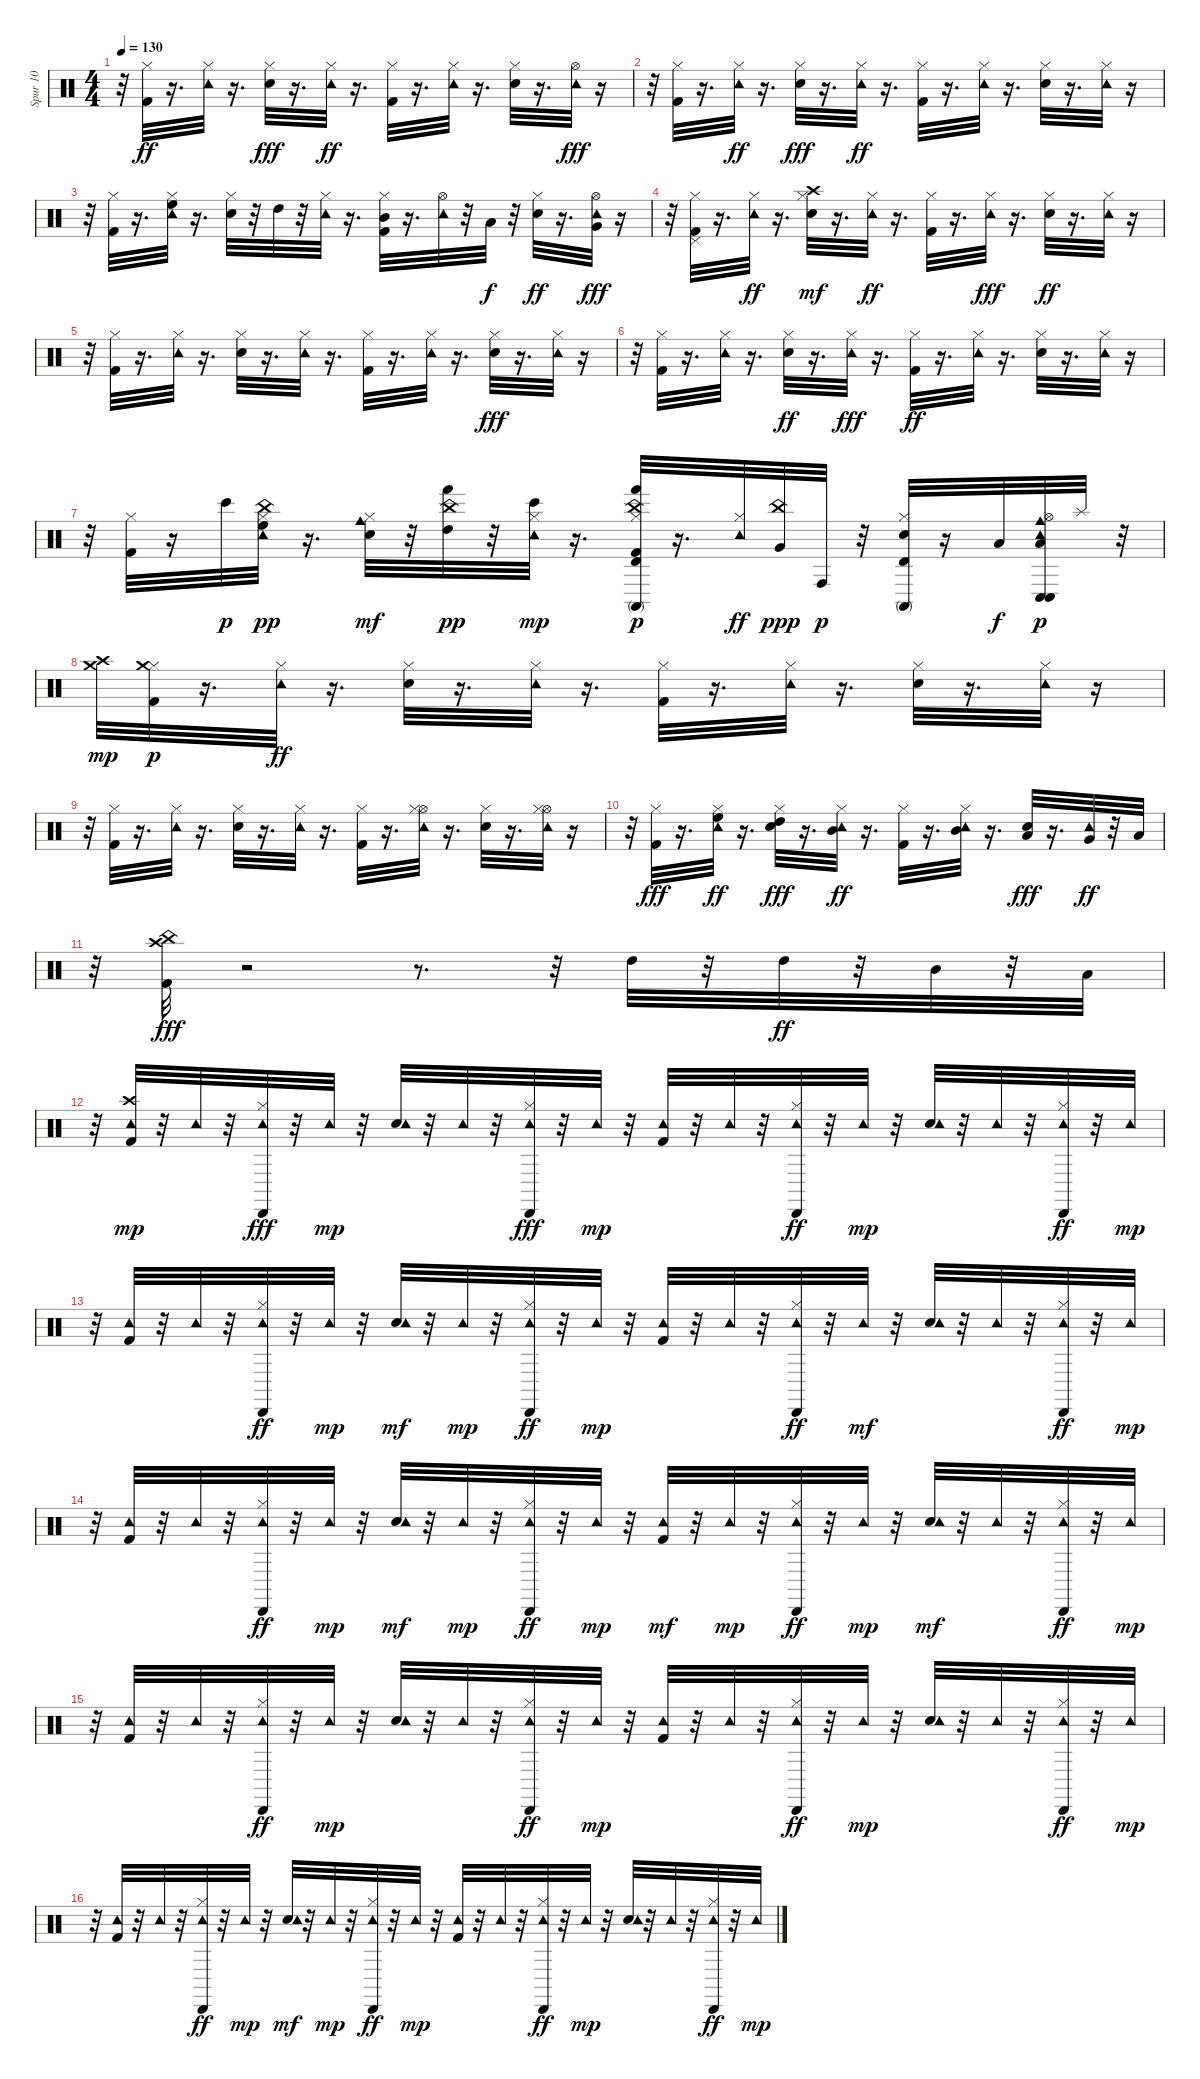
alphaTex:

\track ("Spur 10" "Spur 10") {instrument percussion}
\staff {score}
\articulation defaults
\ts (4 4)
\tempo 130
\clef neutral
\ks c
r.32{dy ff} ("Kick (hit) 2" "Hi-Hat (closed)").32 r.16{d} ("Tambourine (hit)" "Hi-Hat (closed)").32 r.16{d} ("Electric Snare (hit)" "Hi-Hat (closed)").32{dy fff} r.16{d} ("Tambourine (hit)" "Hi-Hat (closed)").32{dy ff} r.16{d} ("Kick (hit) 2" "Hi-Hat (closed)").32 r.16{d} ("Tambourine (hit)" "Hi-Hat (closed)").32 r.16{d} ("Electric Snare (hit)" "Hi-Hat (closed)").32 r.16{d} ("Tambourine (hit)" "Hi-Hat (open)").32{dy fff} r.16 |
r.32 ("Kick (hit) 2" "Hi-Hat (closed)").32 r.16{d} ("Tambourine (hit)" "Hi-Hat (closed)").32{dy ff} r.16{d} ("Electric Snare (hit)" "Hi-Hat (closed)").32{dy fff} r.16{d} ("Tambourine (hit)" "Hi-Hat (closed)").32{dy ff} r.16{d} ("Kick (hit) 2" "Hi-Hat (closed)").32 r.16{d} ("Tambourine (hit)" "Hi-Hat (closed)").32 r.16{d} ("Electric Snare (hit)" "Hi-Hat (closed)").32 r.16{d} ("Tambourine (hit)" "Hi-Hat (closed)").32 r.16 |
r.32 ("Kick (hit) 2" "Hi-Hat (closed)").32 r.16{d} ("Tambourine (hit)" "Hi-Hat (closed)" "High Floor Tom (hit)").32 r.16{d} ("Electric Snare (hit)" "Hi-Hat (closed)").32 r.32 "High Tom (hit)".32 r.32 ("Tambourine (hit)" "Hi-Hat (closed)").32 r.16{d} ("Kick (hit) 2" "Hi-Hat (closed)" "Mid Tom (hit)").32 r.16{d} ("Tambourine (hit)" "Hi-Hat (open)").32 r.32 "Low Tom (hit)".32{dy f} r.32 ("Electric Snare (hit)" "Hi-Hat (closed)").32{dy ff} r.16{d} ("Tambourine (hit)" "Hi-Hat (open)" "Very Low Tom (hit)").32{dy fff} r.16 |
r.32 ("Kick (hit) 2" "Hi-Hat (closed)" "Pedal Hi-Hat (hit)").32 r.16{d} ("Tambourine (hit)" "Hi-Hat (closed)").32{dy ff} r.16{d} ("Electric Snare (hit)" "Hi-Hat (closed)" "Crash high (hit)").32{dy mf} r.16{d} ("Tambourine (hit)" "Hi-Hat (closed)").32{dy ff} r.16{d} ("Kick (hit) 2" "Hi-Hat (closed)").32 r.16{d} ("Tambourine (hit)" "Hi-Hat (closed)").32{dy fff} r.16{d} ("Electric Snare (hit)" "Hi-Hat (closed)").32{dy ff} r.16{d} ("Tambourine (hit)" "Hi-Hat (closed)").32 r.16 |
r.32 ("Kick (hit) 2" "Hi-Hat (closed)").32 r.16{d} ("Tambourine (hit)" "Hi-Hat (closed)").32 r.16{d} ("Electric Snare (hit)" "Hi-Hat (closed)").32 r.16{d} ("Tambourine (hit)" "Hi-Hat (closed)").32 r.16{d} ("Kick (hit) 2" "Hi-Hat (closed)").32 r.16{d} ("Tambourine (hit)" "Hi-Hat (closed)").32 r.16{d} ("Electric Snare (hit)" "Hi-Hat (closed)").32{dy fff} r.16{d} ("Tambourine (hit)" "Hi-Hat (closed)").32 r.16 |
r.32 ("Kick (hit) 2" "Hi-Hat (closed)").32 r.16{d} ("Tambourine (hit)" "Hi-Hat (closed)").32 r.16{d} ("Electric Snare (hit)" "Hi-Hat (closed)").32{dy ff} r.16{d} ("Tambourine (hit)" "Hi-Hat (closed)").32{dy fff} r.16{d} ("Kick (hit) 2" "Hi-Hat (closed)").32{dy ff} r.16{d} ("Tambourine (hit)" "Hi-Hat (closed)").32 r.16{d} ("Electric Snare (hit)" "Hi-Hat (closed)").32 r.16{d} ("Tambourine (hit)" "Hi-Hat (closed)").32 r.16 |
r.32 ("Kick (hit) 2" "Hi-Hat (closed)").32 r.16 "Bongo High (hit)".32{dy p} ("Tambourine (hit)" "Hi-Hat (closed)" "China (hit)" "High Floor Tom (hit)").32{dy pp} r.16{d} ("Electric Snare (hit)" "Hi-Hat (closed)" "Cowbell medium (hit)").32{dy mf} r.32 ("Hand (hit)" "China (hit)" "High Tom (hit)").32{dy pp} r.32 ("Tambourine (hit)" "Hi-Hat (closed)" "Bongo High (hit)").32{dy mp} r.16{d} ("China (hit)" "Kick (hit) 2" "Hi-Hat (closed)" "Hand (hit)" "Timbale high (hit)" "Conga high (mute)").32{dy p} r.16{d} ("Tambourine (hit)" "Hi-Hat (closed)").32{dy ff} ("China (hit)" "Very Low Tom (hit)").32{dy ppp} "Conga high (hit)".32{dy p} r.32 ("Electric Snare (hit)" "Hi-Hat (closed)" "Conga high (mute)" "Timbale high (hit)").32 r.16 "Low Floor Tom (hit)".32{dy f} ("Tambourine (hit)" "Hi-Hat (open)" "Low Floor Tom (hit)" "Conga low (hit)" "Cowbell medium (hit)" "Conga low (hit)").32{dy p} "Splash (hit)".32 r.32 |
("Crash high (hit)" "Crash medium (hit)").32{dy mp} ("Kick (hit) 2" "Hi-Hat (closed)" "Crash medium (hit)").32{dy p} r.16{d} ("Tambourine (hit)" "Hi-Hat (closed)").32{dy ff} r.16{d} ("Electric Snare (hit)" "Hi-Hat (closed)").32 r.16{d} ("Tambourine (hit)" "Hi-Hat (closed)").32 r.16{d} ("Kick (hit) 2" "Hi-Hat (closed)").32 r.16{d} ("Tambourine (hit)" "Hi-Hat (closed)").32 r.16{d} ("Electric Snare (hit)" "Hi-Hat (closed)").32 r.16{d} ("Tambourine (hit)" "Hi-Hat (closed)").32 r.16 |
r.32 ("Kick (hit) 2" "Hi-Hat (closed)").32 r.16{d} ("Tambourine (hit)" "Hi-Hat (closed)").32 r.16{d} ("Electric Snare (hit)" "Hi-Hat (closed)").32 r.16{d} ("Tambourine (hit)" "Hi-Hat (closed)").32 r.16{d} ("Kick (hit) 2" "Hi-Hat (closed)").32 r.16{d} ("Tambourine (hit)" "Hi-Hat (open)" "Hi-Hat (closed)").32 r.16{d} ("Electric Snare (hit)" "Hi-Hat (closed)").32 r.16{d} ("Tambourine (hit)" "Hi-Hat (open)" "Hi-Hat (closed)").32 r.16 |
r.32 ("Kick (hit) 2" "Hi-Hat (closed)").32{dy fff} r.16{d} ("Tambourine (hit)" "Hi-Hat (closed)" "High Floor Tom (hit)").32{dy ff} r.16{d} ("Hi-Hat (closed)" "High Tom (hit)" "Electric Snare (hit)").32{dy fff} r.16{d} ("Tambourine (hit)" "Hi-Hat (closed)" "Mid Tom (hit)").32{dy ff} r.16{d} ("Kick (hit) 2" "Hi-Hat (closed)").32 r.16{d} ("Tambourine (hit)" "Hi-Hat (closed)" "Mid Tom (hit)").32 r.16{d} ("Low Tom (hit)" "Electric Snare (hit)").32{dy fff} r.16{d} ("Tambourine (hit)" "Very Low Tom (hit)").32{dy ff} r.32 "Low Floor Tom (hit)".32 |
r.32 ("Kick (hit) 2" "Crash high (hit)" "China (hit)").32{dy fff} r.2 r.8{d} r.32 "High Tom (hit)".32 r.32 "High Tom (hit)".32{dy ff} r.32 "Mid Tom (hit)".32 r.32 "Low Tom (hit)".32 |
r.32 ("Kick (hit) 2" "Tambourine (hit)" "Crash high (hit)").32{dy mp} r.32 "Tambourine (hit)".32 r.32 ("Hi-Hat (closed)" "Tambourine (hit)" "Cabasa (hit)").32{dy fff} r.32 "Tambourine (hit)".32{dy mp} r.32 ("Electric Snare (hit)" "Tambourine (hit)").32 r.32 "Tambourine (hit)".32 r.32 ("Hi-Hat (closed)" "Tambourine (hit)" "Cabasa (hit)").32{dy fff} r.32 "Tambourine (hit)".32{dy mp} r.32 ("Kick (hit) 2" "Tambourine (hit)").32 r.32 "Tambourine (hit)".32 r.32 ("Hi-Hat (closed)" "Tambourine (hit)" "Cabasa (hit)").32{dy ff} r.32 "Tambourine (hit)".32{dy mp} r.32 ("Electric Snare (hit)" "Tambourine (hit)").32 r.32 "Tambourine (hit)".32 r.32 ("Hi-Hat (closed)" "Tambourine (hit)" "Cabasa (hit)").32{dy ff} r.32 "Tambourine (hit)".32{dy mp} |
r.32 ("Kick (hit) 2" "Tambourine (hit)").32 r.32 "Tambourine (hit)".32 r.32 ("Hi-Hat (closed)" "Tambourine (hit)" "Cabasa (hit)").32{dy ff} r.32 "Tambourine (hit)".32{dy mp} r.32 ("Electric Snare (hit)" "Tambourine (hit)").32{dy mf} r.32 "Tambourine (hit)".32{dy mp} r.32 ("Hi-Hat (closed)" "Tambourine (hit)" "Cabasa (hit)").32{dy ff} r.32 "Tambourine (hit)".32{dy mp} r.32 ("Kick (hit) 2" "Tambourine (hit)").32 r.32 "Tambourine (hit)".32 r.32 ("Hi-Hat (closed)" "Tambourine (hit)" "Cabasa (hit)").32{dy ff} r.32 "Tambourine (hit)".32{dy mf} r.32 ("Electric Snare (hit)" "Tambourine (hit)").32 r.32 "Tambourine (hit)".32 r.32 ("Hi-Hat (closed)" "Tambourine (hit)" "Cabasa (hit)").32{dy ff} r.32 "Tambourine (hit)".32{dy mp} |
r.32 ("Kick (hit) 2" "Tambourine (hit)").32 r.32 "Tambourine (hit)".32 r.32 ("Hi-Hat (closed)" "Tambourine (hit)" "Cabasa (hit)").32{dy ff} r.32 "Tambourine (hit)".32{dy mp} r.32 ("Electric Snare (hit)" "Tambourine (hit)").32{dy mf} r.32 "Tambourine (hit)".32{dy mp} r.32 ("Hi-Hat (closed)" "Tambourine (hit)" "Cabasa (hit)").32{dy ff} r.32 "Tambourine (hit)".32{dy mp} r.32 ("Kick (hit) 2" "Tambourine (hit)").32{dy mf} r.32 "Tambourine (hit)".32{dy mp} r.32 ("Hi-Hat (closed)" "Tambourine (hit)" "Cabasa (hit)").32{dy ff} r.32 "Tambourine (hit)".32{dy mp} r.32 ("Electric Snare (hit)" "Tambourine (hit)").32{dy mf} r.32 "Tambourine (hit)".32 r.32 ("Hi-Hat (closed)" "Tambourine (hit)" "Cabasa (hit)").32{dy ff} r.32 "Tambourine (hit)".32{dy mp} |
r.32 ("Kick (hit) 2" "Tambourine (hit)").32 r.32 "Tambourine (hit)".32 r.32 ("Hi-Hat (closed)" "Tambourine (hit)" "Cabasa (hit)").32{dy ff} r.32 "Tambourine (hit)".32{dy mp} r.32 ("Electric Snare (hit)" "Tambourine (hit)").32 r.32 "Tambourine (hit)".32 r.32 ("Hi-Hat (closed)" "Tambourine (hit)" "Cabasa (hit)").32{dy ff} r.32 "Tambourine (hit)".32{dy mp} r.32 ("Kick (hit) 2" "Tambourine (hit)").32 r.32 "Tambourine (hit)".32 r.32 ("Hi-Hat (closed)" "Tambourine (hit)" "Cabasa (hit)").32{dy ff} r.32 "Tambourine (hit)".32{dy mp} r.32 ("Electric Snare (hit)" "Tambourine (hit)").32 r.32 "Tambourine (hit)".32 r.32 ("Hi-Hat (closed)" "Tambourine (hit)" "Cabasa (hit)").32{dy ff} r.32 "Tambourine (hit)".32{dy mp} |
r.32 ("Kick (hit) 2" "Tambourine (hit)").32 r.32 "Tambourine (hit)".32 r.32 ("Hi-Hat (closed)" "Tambourine (hit)" "Cabasa (hit)").32{dy ff} r.32 "Tambourine (hit)".32{dy mp} r.32 ("Electric Snare (hit)" "Tambourine (hit)").32{dy mf} r.32 "Tambourine (hit)".32{dy mp} r.32 ("Hi-Hat (closed)" "Tambourine (hit)" "Cabasa (hit)").32{dy ff} r.32 "Tambourine (hit)".32{dy mp} r.32 ("Kick (hit) 2" "Tambourine (hit)").32 r.32 "Tambourine (hit)".32 r.32 ("Hi-Hat (closed)" "Tambourine (hit)" "Cabasa (hit)").32{dy ff} r.32 "Tambourine (hit)".32{dy mp} r.32 ("Electric Snare (hit)" "Tambourine (hit)").32 r.32 "Tambourine (hit)".32 r.32 ("Hi-Hat (closed)" "Tambourine (hit)" "Cabasa (hit)").32{dy ff} r.32 "Tambourine (hit)".32{dy mp}
